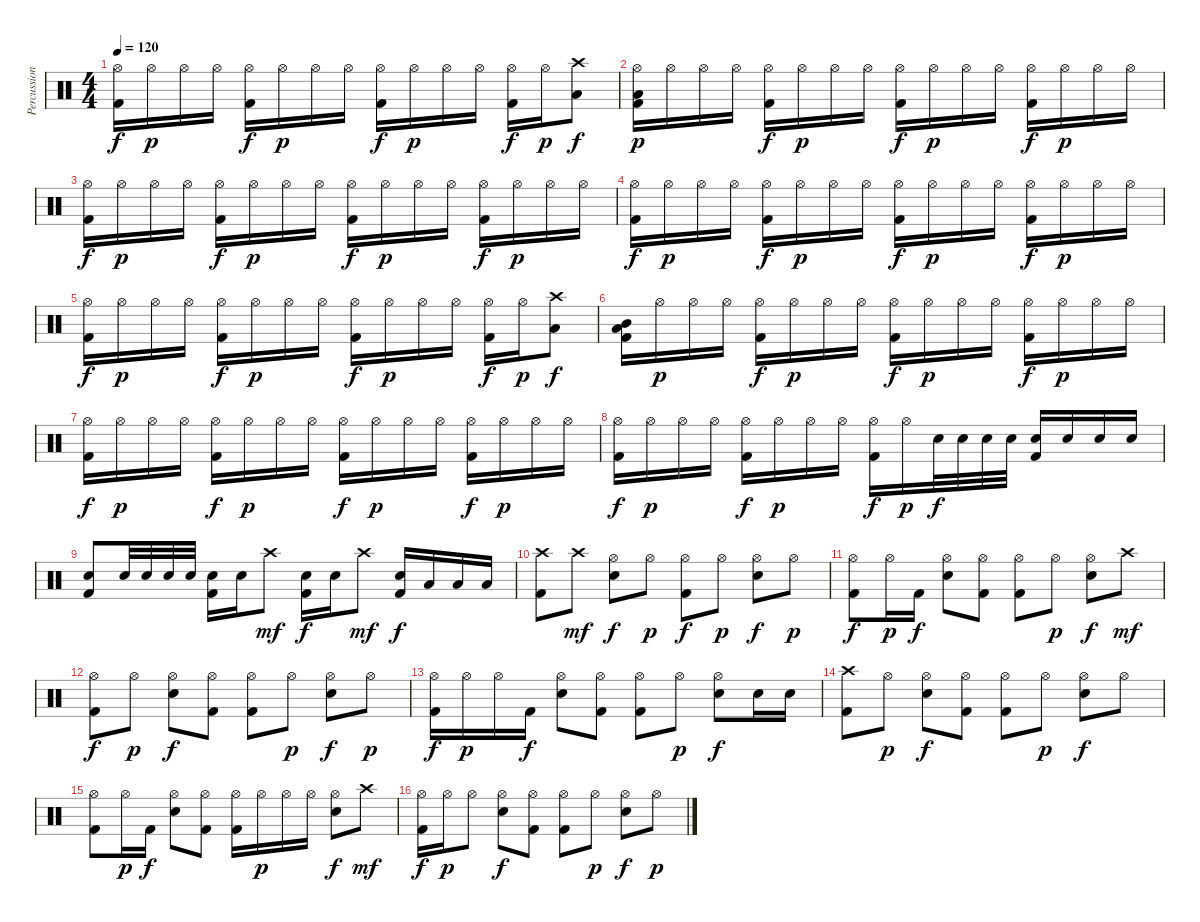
\track ("Percussion" "Percussion") {instrument percussion}
\staff {score}
\articulation defaults
\ts (4 4)
\tempo 120
\clef neutral
\ks c
("Hi-Hat (open)" "Kick (hit) 2").16{dy f} "Hi-Hat (open)".16{dy p} "Hi-Hat (open)".16 "Hi-Hat (open)".16 ("Hi-Hat (open)" "Kick (hit) 2").16{dy f} "Hi-Hat (open)".16{dy p} "Hi-Hat (open)".16 "Hi-Hat (open)".16 ("Hi-Hat (open)" "Kick (hit) 2").16{dy f} "Hi-Hat (open)".16{dy p} "Hi-Hat (open)".16 "Hi-Hat (open)".16 ("Hi-Hat (open)" "Kick (hit) 2").16{dy f} "Hi-Hat (open)".16{dy p} ("Crash high (hit)" "Low Tom (hit)").8{dy f} |
("Hi-Hat (open)" "Low Tom (hit)" "Kick (hit) 2").16{dy p} "Hi-Hat (open)".16 "Hi-Hat (open)".16 "Hi-Hat (open)".16 ("Hi-Hat (open)" "Kick (hit) 2").16{dy f} "Hi-Hat (open)".16{dy p} "Hi-Hat (open)".16 "Hi-Hat (open)".16 ("Hi-Hat (open)" "Kick (hit) 2").16{dy f} "Hi-Hat (open)".16{dy p} "Hi-Hat (open)".16 "Hi-Hat (open)".16 ("Hi-Hat (open)" "Kick (hit) 2").16{dy f} "Hi-Hat (open)".16{dy p} "Hi-Hat (open)".16 "Hi-Hat (open)".16 |
("Hi-Hat (open)" "Kick (hit) 2").16{dy f} "Hi-Hat (open)".16{dy p} "Hi-Hat (open)".16 "Hi-Hat (open)".16 ("Hi-Hat (open)" "Kick (hit) 2").16{dy f} "Hi-Hat (open)".16{dy p} "Hi-Hat (open)".16 "Hi-Hat (open)".16 ("Hi-Hat (open)" "Kick (hit) 2").16{dy f} "Hi-Hat (open)".16{dy p} "Hi-Hat (open)".16 "Hi-Hat (open)".16 ("Hi-Hat (open)" "Kick (hit) 2").16{dy f} "Hi-Hat (open)".16{dy p} "Hi-Hat (open)".16 "Hi-Hat (open)".16 |
("Hi-Hat (open)" "Kick (hit) 2").16{dy f} "Hi-Hat (open)".16{dy p} "Hi-Hat (open)".16 "Hi-Hat (open)".16 ("Hi-Hat (open)" "Kick (hit) 2").16{dy f} "Hi-Hat (open)".16{dy p} "Hi-Hat (open)".16 "Hi-Hat (open)".16 ("Hi-Hat (open)" "Kick (hit) 2").16{dy f} "Hi-Hat (open)".16{dy p} "Hi-Hat (open)".16 "Hi-Hat (open)".16 ("Hi-Hat (open)" "Kick (hit) 2").16{dy f} "Hi-Hat (open)".16{dy p} "Hi-Hat (open)".16 "Hi-Hat (open)".16 |
("Hi-Hat (open)" "Kick (hit) 2").16{dy f} "Hi-Hat (open)".16{dy p} "Hi-Hat (open)".16 "Hi-Hat (open)".16 ("Hi-Hat (open)" "Kick (hit) 2").16{dy f} "Hi-Hat (open)".16{dy p} "Hi-Hat (open)".16 "Hi-Hat (open)".16 ("Hi-Hat (open)" "Kick (hit) 2").16{dy f} "Hi-Hat (open)".16{dy p} "Hi-Hat (open)".16 "Hi-Hat (open)".16 ("Hi-Hat (open)" "Kick (hit) 2").16{dy f} "Hi-Hat (open)".16{dy p} ("Crash high (hit)" "Low Tom (hit)").8{dy f} |
("Mid Tom (hit)" "Low Tom (hit)" "Kick (hit) 2").16 "Hi-Hat (open)".16{dy p} "Hi-Hat (open)".16 "Hi-Hat (open)".16 ("Hi-Hat (open)" "Kick (hit) 2").16{dy f} "Hi-Hat (open)".16{dy p} "Hi-Hat (open)".16 "Hi-Hat (open)".16 ("Hi-Hat (open)" "Kick (hit) 2").16{dy f} "Hi-Hat (open)".16{dy p} "Hi-Hat (open)".16 "Hi-Hat (open)".16 ("Hi-Hat (open)" "Kick (hit) 2").16{dy f} "Hi-Hat (open)".16{dy p} "Hi-Hat (open)".16 "Hi-Hat (open)".16 |
("Hi-Hat (open)" "Kick (hit) 2").16{dy f} "Hi-Hat (open)".16{dy p} "Hi-Hat (open)".16 "Hi-Hat (open)".16 ("Hi-Hat (open)" "Kick (hit) 2").16{dy f} "Hi-Hat (open)".16{dy p} "Hi-Hat (open)".16 "Hi-Hat (open)".16 ("Hi-Hat (open)" "Kick (hit) 2").16{dy f} "Hi-Hat (open)".16{dy p} "Hi-Hat (open)".16 "Hi-Hat (open)".16 ("Hi-Hat (open)" "Kick (hit) 2").16{dy f} "Hi-Hat (open)".16{dy p} "Hi-Hat (open)".16 "Hi-Hat (open)".16 |
("Hi-Hat (open)" "Kick (hit) 2").16{dy f} "Hi-Hat (open)".16{dy p} "Hi-Hat (open)".16 "Hi-Hat (open)".16 ("Hi-Hat (open)" "Kick (hit) 2").16{dy f} "Hi-Hat (open)".16{dy p} "Hi-Hat (open)".16 "Hi-Hat (open)".16 ("Hi-Hat (open)" "Kick (hit) 2").16{dy f} "Hi-Hat (open)".16{dy p} "Electric Snare (hit)".32{dy f} "Electric Snare (hit)".32 "Electric Snare (hit)".32 "Electric Snare (hit)".32 ("Electric Snare (hit)" "Kick (hit) 2").16 "Electric Snare (hit)".16 "Electric Snare (hit)".16 "Electric Snare (hit)".16 |
("Electric Snare (hit)" "Kick (hit) 2").8 "Electric Snare (hit)".32 "Electric Snare (hit)".32 "Electric Snare (hit)".32 "Electric Snare (hit)".32 ("Electric Snare (hit)" "Kick (hit) 2").16 "Electric Snare (hit)".16 "Crash high (hit)".8{dy mf} ("Electric Snare (hit)" "Kick (hit) 2").16{dy f} "Electric Snare (hit)".16 "Crash high (hit)".8{dy mf} ("Electric Snare (hit)" "Kick (hit) 2").16{dy f} "Low Tom (hit)".16 "Low Tom (hit)".16 "Low Floor Tom (hit)".16 |
("Crash high (hit)" "Kick (hit) 2").8 "Crash high (hit)".8{dy mf} ("Hi-Hat (open)" "Electric Snare (hit)").8{dy f} "Hi-Hat (open)".8{dy p} ("Hi-Hat (open)" "Kick (hit) 2").8{dy f} "Hi-Hat (open)".8{dy p} ("Hi-Hat (open)" "Electric Snare (hit)").8{dy f} "Hi-Hat (open)".8{dy p} |
("Hi-Hat (open)" "Kick (hit) 2").8{dy f} "Hi-Hat (open)".16{dy p} "Kick (hit) 2".16{dy f} ("Hi-Hat (open)" "Electric Snare (hit)").8 ("Hi-Hat (open)" "Kick (hit) 2").8 ("Hi-Hat (open)" "Kick (hit) 2").8 "Hi-Hat (open)".8{dy p} ("Hi-Hat (open)" "Electric Snare (hit)").8{dy f} "Crash high (hit)".8{dy mf} |
("Hi-Hat (open)" "Kick (hit) 2").8{dy f} "Hi-Hat (open)".8{dy p} ("Hi-Hat (open)" "Electric Snare (hit)").8{dy f} ("Hi-Hat (open)" "Kick (hit) 2").8 ("Hi-Hat (open)" "Kick (hit) 2").8 "Hi-Hat (open)".8{dy p} ("Hi-Hat (open)" "Electric Snare (hit)").8{dy f} "Hi-Hat (open)".8{dy p} |
("Hi-Hat (open)" "Kick (hit) 2").16{dy f} "Hi-Hat (open)".16{dy p} "Hi-Hat (open)".16 "Kick (hit) 2".16{dy f} ("Hi-Hat (open)" "Electric Snare (hit)").8 ("Hi-Hat (open)" "Kick (hit) 2").8 ("Hi-Hat (open)" "Kick (hit) 2").8 "Hi-Hat (open)".8{dy p} ("Hi-Hat (open)" "Electric Snare (hit)").8{dy f} "Electric Snare (hit)".16 "Electric Snare (hit)".16 |
("Crash high (hit)" "Kick (hit) 2").8 "Hi-Hat (open)".8{dy p} ("Hi-Hat (open)" "Electric Snare (hit)").8{dy f} ("Hi-Hat (open)" "Kick (hit) 2").8 ("Hi-Hat (open)" "Kick (hit) 2").8 "Hi-Hat (open)".8{dy p} ("Hi-Hat (open)" "Electric Snare (hit)").8{dy f} "Hi-Hat (open)".8 |
("Hi-Hat (open)" "Kick (hit) 2").8 "Hi-Hat (open)".16{dy p} "Kick (hit) 2".16{dy f} ("Hi-Hat (open)" "Electric Snare (hit)").8 ("Hi-Hat (open)" "Kick (hit) 2").8 ("Hi-Hat (open)" "Kick (hit) 2").16 "Hi-Hat (open)".16{dy p} "Hi-Hat (open)".16 "Hi-Hat (open)".16 ("Hi-Hat (open)" "Electric Snare (hit)").8{dy f} "Crash high (hit)".8{dy mf} |
("Hi-Hat (open)" "Kick (hit) 2").16{dy f} "Hi-Hat (open)".16{dy p} "Hi-Hat (open)".8 ("Hi-Hat (open)" "Electric Snare (hit)").8{dy f} ("Hi-Hat (open)" "Kick (hit) 2").8 ("Hi-Hat (open)" "Kick (hit) 2").8 "Hi-Hat (open)".8{dy p} ("Hi-Hat (open)" "Electric Snare (hit)").8{dy f} "Hi-Hat (open)".8{dy p}
